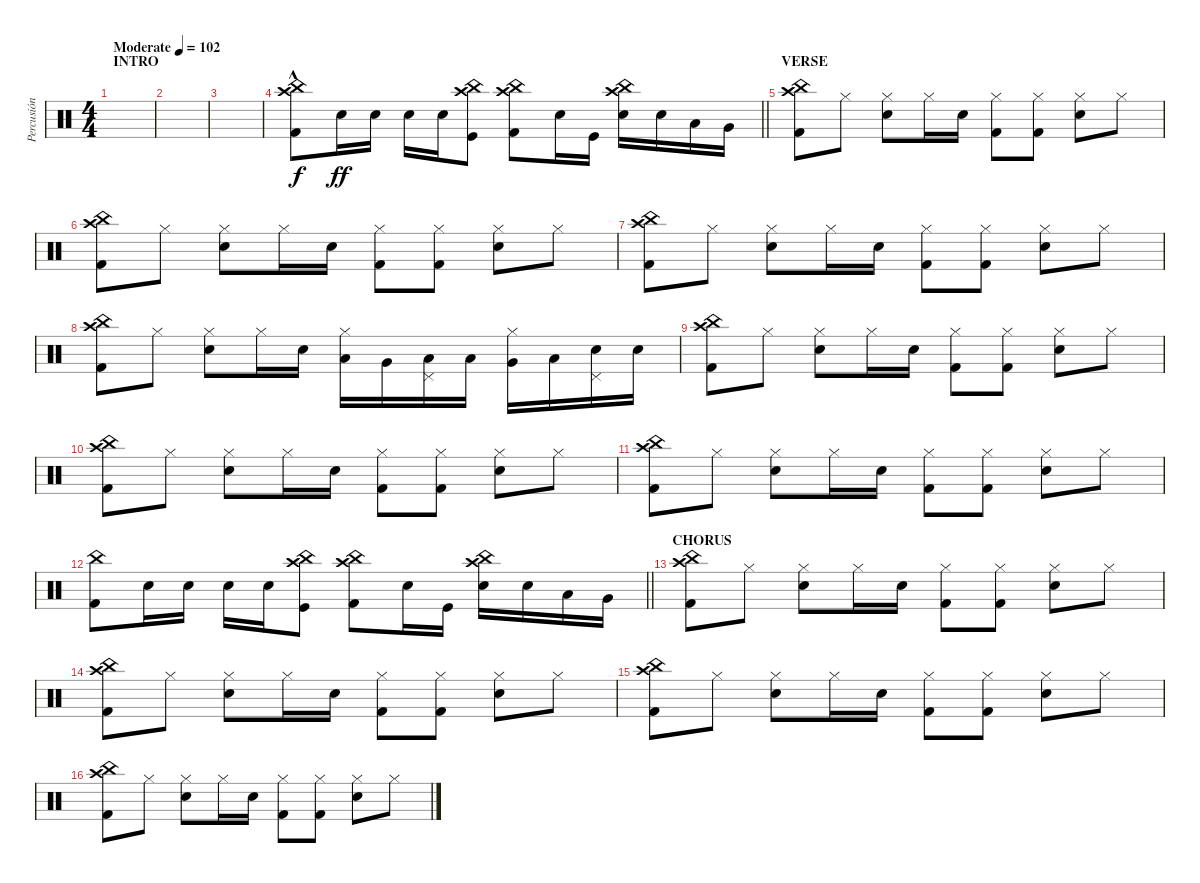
\track ("Percusión" "Percusión") {instrument percussion}
\staff {score}
\articulation defaults
\ts (4 4)
\section ("" "INTRO")
\tempo (102 "Moderate")
\clef neutral
\ks c
|
|
|
\barLineRight lightlight
("Kick (hit) 2"{hac} "China (hit)"{hac} "Crash high (hit)"{hac}).8 "Electric Snare (hit)".16{dy ff} "Electric Snare (hit)".16 "Electric Snare (hit)".16 "Electric Snare (hit)".16 ("Kick (hit)" "China (hit)" "Crash high (hit)").8 ("Kick (hit) 2" "China (hit)" "Crash high (hit)").8 "Electric Snare (hit)".16 "Kick (hit)".16 ("Electric Snare (hit)" "China (hit)" "Crash high (hit)").16 "Electric Snare (hit)".16 "Low Floor Tom (hit)".16 "Very Low Tom (hit)".16 |
\section ("" "VERSE")
("Kick (hit) 2" "China (hit)" "Crash high (hit)").8 "Hi-Hat (closed)".8 ("Electric Snare (hit)" "Hi-Hat (closed)").8 "Hi-Hat (closed)".16 "Electric Snare (hit)".16 ("Kick (hit) 2" "Hi-Hat (closed)").8 ("Kick (hit) 2" "Hi-Hat (closed)").8 ("Electric Snare (hit)" "Hi-Hat (closed)").8 "Hi-Hat (closed)".8 |
("Kick (hit) 2" "China (hit)" "Crash high (hit)").8 "Hi-Hat (closed)".8 ("Electric Snare (hit)" "Hi-Hat (closed)").8 "Hi-Hat (closed)".16 "Electric Snare (hit)".16 ("Kick (hit) 2" "Hi-Hat (closed)").8 ("Kick (hit) 2" "Hi-Hat (closed)").8 ("Electric Snare (hit)" "Hi-Hat (closed)").8 "Hi-Hat (closed)".8 |
("Kick (hit) 2" "China (hit)" "Crash high (hit)").8 "Hi-Hat (closed)".8 ("Electric Snare (hit)" "Hi-Hat (closed)").8 "Hi-Hat (closed)".16 "Electric Snare (hit)".16 ("Kick (hit) 2" "Hi-Hat (closed)").8 ("Kick (hit) 2" "Hi-Hat (closed)").8 ("Electric Snare (hit)" "Hi-Hat (closed)").8 "Hi-Hat (closed)".8 |
("Kick (hit) 2" "China (hit)" "Crash high (hit)").8 "Hi-Hat (closed)".8 ("Electric Snare (hit)" "Hi-Hat (closed)").8 "Hi-Hat (closed)".16 "Electric Snare (hit)".16 ("Low Tom (hit)" "Hi-Hat (closed)").16 "Very Low Tom (hit)".16 ("Low Floor Tom (hit)" "Pedal Hi-Hat (hit)").16 "Low Tom (hit)".16 ("Very Low Tom (hit)" "Hi-Hat (closed)").16 "Low Floor Tom (hit)".16 ("Electric Snare (hit)" "Pedal Hi-Hat (hit)").16 "Electric Snare (hit)".16 |
("Kick (hit) 2" "China (hit)" "Crash high (hit)").8 "Hi-Hat (closed)".8 ("Electric Snare (hit)" "Hi-Hat (closed)").8 "Hi-Hat (closed)".16 "Electric Snare (hit)".16 ("Kick (hit) 2" "Hi-Hat (closed)").8 ("Kick (hit) 2" "Hi-Hat (closed)").8 ("Electric Snare (hit)" "Hi-Hat (closed)").8 "Hi-Hat (closed)".8 |
("Kick (hit) 2" "China (hit)" "Crash high (hit)").8 "Hi-Hat (closed)".8 ("Electric Snare (hit)" "Hi-Hat (closed)").8 "Hi-Hat (closed)".16 "Electric Snare (hit)".16 ("Kick (hit) 2" "Hi-Hat (closed)").8 ("Kick (hit) 2" "Hi-Hat (closed)").8 ("Electric Snare (hit)" "Hi-Hat (closed)").8 "Hi-Hat (closed)".8 |
("Kick (hit) 2" "China (hit)" "Crash high (hit)").8 "Hi-Hat (closed)".8 ("Electric Snare (hit)" "Hi-Hat (closed)").8 "Hi-Hat (closed)".16 "Electric Snare (hit)".16 ("Kick (hit) 2" "Hi-Hat (closed)").8 ("Kick (hit) 2" "Hi-Hat (closed)").8 ("Electric Snare (hit)" "Hi-Hat (closed)").8 "Hi-Hat (closed)".8 |
\barLineRight lightlight
("Kick (hit) 2" "China (hit)").8 "Electric Snare (hit)".16 "Electric Snare (hit)".16 "Electric Snare (hit)".16 "Electric Snare (hit)".16 ("Kick (hit)" "China (hit)" "Crash high (hit)").8 ("Kick (hit) 2" "China (hit)" "Crash high (hit)").8 "Electric Snare (hit)".16 "Kick (hit)".16 ("Electric Snare (hit)" "China (hit)" "Crash high (hit)").16 "Electric Snare (hit)".16 "Low Floor Tom (hit)".16 "Very Low Tom (hit)".16 |
\section ("" "CHORUS")
("Kick (hit) 2" "China (hit)" "Crash high (hit)").8 "Hi-Hat (closed)".8 ("Electric Snare (hit)" "Hi-Hat (closed)").8 "Hi-Hat (closed)".16 "Electric Snare (hit)".16 ("Kick (hit) 2" "Hi-Hat (closed)").8 ("Kick (hit) 2" "Hi-Hat (closed)").8 ("Electric Snare (hit)" "Hi-Hat (closed)").8 "Hi-Hat (closed)".8 |
("Kick (hit) 2" "China (hit)" "Crash high (hit)").8 "Hi-Hat (closed)".8 ("Electric Snare (hit)" "Hi-Hat (closed)").8 "Hi-Hat (closed)".16 "Electric Snare (hit)".16 ("Kick (hit) 2" "Hi-Hat (closed)").8 ("Kick (hit) 2" "Hi-Hat (closed)").8 ("Electric Snare (hit)" "Hi-Hat (closed)").8 "Hi-Hat (closed)".8 |
("Kick (hit) 2" "China (hit)" "Crash high (hit)").8 "Hi-Hat (closed)".8 ("Electric Snare (hit)" "Hi-Hat (closed)").8 "Hi-Hat (closed)".16 "Electric Snare (hit)".16 ("Kick (hit) 2" "Hi-Hat (closed)").8 ("Kick (hit) 2" "Hi-Hat (closed)").8 ("Electric Snare (hit)" "Hi-Hat (closed)").8 "Hi-Hat (closed)".8 |
("Kick (hit) 2" "China (hit)" "Crash high (hit)").8 "Hi-Hat (closed)".8 ("Electric Snare (hit)" "Hi-Hat (closed)").8 "Hi-Hat (closed)".16 "Electric Snare (hit)".16 ("Kick (hit) 2" "Hi-Hat (closed)").8 ("Kick (hit) 2" "Hi-Hat (closed)").8 ("Electric Snare (hit)" "Hi-Hat (closed)").8 "Hi-Hat (closed)".8
